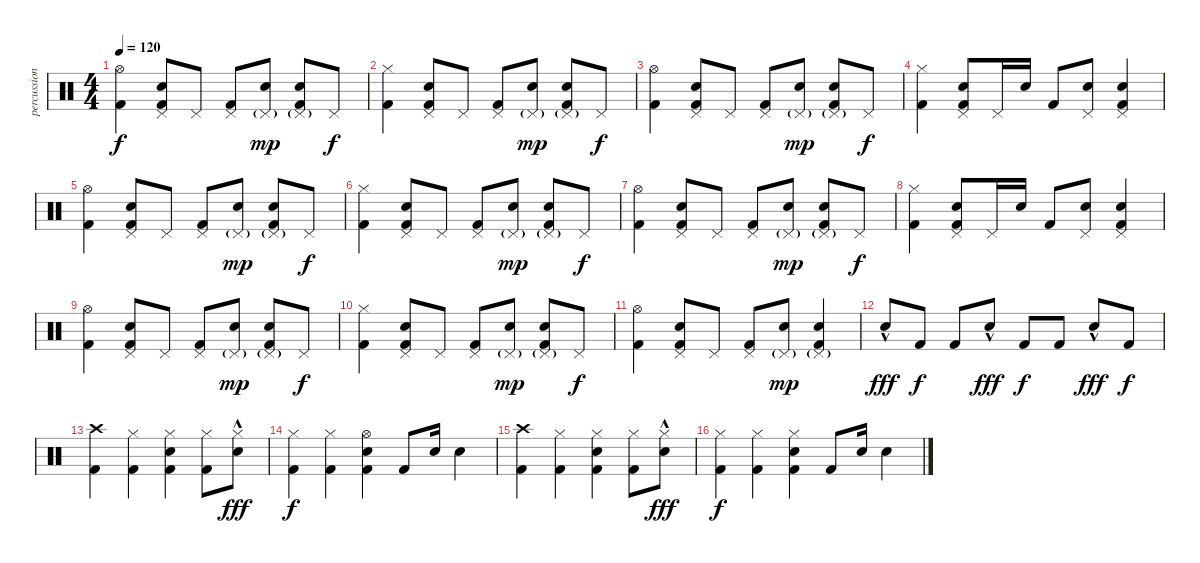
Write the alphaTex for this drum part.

\track ("percussion" "percussion") {instrument percussion}
\staff {score}
\articulation defaults
\ts (4 4)
\tempo 120
\clef neutral
\ks c
("Hi-Hat (open)" "Kick (hit) 2").4{dy f} ("Pedal Hi-Hat (hit)" "Electric Snare (hit)" "Kick (hit) 2").8 "Pedal Hi-Hat (hit)".8 ("Pedal Hi-Hat (hit)" "Kick (hit) 2").8 ("Pedal Hi-Hat (hit)"{g} "Electric Snare (hit)").8{dy mp} ("Pedal Hi-Hat (hit)"{g} "Electric Snare (hit)" "Kick (hit) 2").8 "Pedal Hi-Hat (hit)".8{dy f} |
("Hi-Hat (closed)" "Kick (hit) 2").4 ("Pedal Hi-Hat (hit)" "Electric Snare (hit)" "Kick (hit) 2").8 "Pedal Hi-Hat (hit)".8 ("Pedal Hi-Hat (hit)" "Kick (hit) 2").8 ("Pedal Hi-Hat (hit)"{g} "Electric Snare (hit)").8{dy mp} ("Pedal Hi-Hat (hit)"{g} "Electric Snare (hit)" "Kick (hit) 2").8 "Pedal Hi-Hat (hit)".8{dy f} |
("Hi-Hat (open)" "Kick (hit) 2").4 ("Pedal Hi-Hat (hit)" "Electric Snare (hit)" "Kick (hit) 2").8 "Pedal Hi-Hat (hit)".8 ("Pedal Hi-Hat (hit)" "Kick (hit) 2").8 ("Pedal Hi-Hat (hit)"{g} "Electric Snare (hit)").8{dy mp} ("Pedal Hi-Hat (hit)"{g} "Electric Snare (hit)" "Kick (hit) 2").8 "Pedal Hi-Hat (hit)".8{dy f} |
("Hi-Hat (closed)" "Kick (hit) 2").4 ("Pedal Hi-Hat (hit)" "Electric Snare (hit)" "Kick (hit) 2").8 "Pedal Hi-Hat (hit)".16 "Electric Snare (hit)".16 "Kick (hit) 2".8 ("Pedal Hi-Hat (hit)" "Electric Snare (hit)").8 ("Pedal Hi-Hat (hit)" "Electric Snare (hit)" "Kick (hit) 2").4 |
("Hi-Hat (open)" "Kick (hit) 2").4 ("Pedal Hi-Hat (hit)" "Electric Snare (hit)" "Kick (hit) 2").8 "Pedal Hi-Hat (hit)".8 ("Pedal Hi-Hat (hit)" "Kick (hit) 2").8 ("Pedal Hi-Hat (hit)"{g} "Electric Snare (hit)").8{dy mp} ("Pedal Hi-Hat (hit)"{g} "Electric Snare (hit)" "Kick (hit) 2").8 "Pedal Hi-Hat (hit)".8{dy f} |
("Hi-Hat (closed)" "Kick (hit) 2").4 ("Pedal Hi-Hat (hit)" "Electric Snare (hit)" "Kick (hit) 2").8 "Pedal Hi-Hat (hit)".8 ("Pedal Hi-Hat (hit)" "Kick (hit) 2").8 ("Pedal Hi-Hat (hit)"{g} "Electric Snare (hit)").8{dy mp} ("Pedal Hi-Hat (hit)"{g} "Electric Snare (hit)" "Kick (hit) 2").8 "Pedal Hi-Hat (hit)".8{dy f} |
("Hi-Hat (open)" "Kick (hit) 2").4 ("Pedal Hi-Hat (hit)" "Electric Snare (hit)" "Kick (hit) 2").8 "Pedal Hi-Hat (hit)".8 ("Pedal Hi-Hat (hit)" "Kick (hit) 2").8 ("Pedal Hi-Hat (hit)"{g} "Electric Snare (hit)").8{dy mp} ("Pedal Hi-Hat (hit)"{g} "Electric Snare (hit)" "Kick (hit) 2").8 "Pedal Hi-Hat (hit)".8{dy f} |
("Hi-Hat (closed)" "Kick (hit) 2").4 ("Pedal Hi-Hat (hit)" "Electric Snare (hit)" "Kick (hit) 2").8 "Pedal Hi-Hat (hit)".16 "Electric Snare (hit)".16 "Kick (hit) 2".8 ("Pedal Hi-Hat (hit)" "Electric Snare (hit)").8 ("Pedal Hi-Hat (hit)" "Electric Snare (hit)" "Kick (hit) 2").4 |
("Hi-Hat (open)" "Kick (hit) 2").4 ("Pedal Hi-Hat (hit)" "Electric Snare (hit)" "Kick (hit) 2").8 "Pedal Hi-Hat (hit)".8 ("Pedal Hi-Hat (hit)" "Kick (hit) 2").8 ("Pedal Hi-Hat (hit)"{g} "Electric Snare (hit)").8{dy mp} ("Pedal Hi-Hat (hit)"{g} "Electric Snare (hit)" "Kick (hit) 2").8 "Pedal Hi-Hat (hit)".8{dy f} |
("Hi-Hat (closed)" "Kick (hit) 2").4 ("Pedal Hi-Hat (hit)" "Electric Snare (hit)" "Kick (hit) 2").8 "Pedal Hi-Hat (hit)".8 ("Pedal Hi-Hat (hit)" "Kick (hit) 2").8 ("Pedal Hi-Hat (hit)"{g} "Electric Snare (hit)").8{dy mp} ("Pedal Hi-Hat (hit)"{g} "Electric Snare (hit)" "Kick (hit) 2").8 "Pedal Hi-Hat (hit)".8{dy f} |
("Hi-Hat (open)" "Kick (hit) 2").4 ("Pedal Hi-Hat (hit)" "Electric Snare (hit)" "Kick (hit) 2").8 "Pedal Hi-Hat (hit)".8 ("Pedal Hi-Hat (hit)" "Kick (hit) 2").8 ("Pedal Hi-Hat (hit)"{g} "Electric Snare (hit)").8{dy mp} ("Pedal Hi-Hat (hit)"{g} "Electric Snare (hit)" "Kick (hit) 2").4 |
"Electric Snare (hit)"{hac}.8{dy fff} "Kick (hit) 2".8{dy f} "Kick (hit) 2".8 "Electric Snare (hit)"{hac}.8{dy fff} "Kick (hit) 2".8{dy f} "Kick (hit) 2".8 "Electric Snare (hit)"{hac}.8{dy fff} "Kick (hit) 2".8{dy f} |
("Crash high (hit)" "Kick (hit) 2").4 ("Hi-Hat (closed)" "Kick (hit) 2").4 ("Hi-Hat (closed)" "Electric Snare (hit)" "Kick (hit) 2").4 ("Hi-Hat (closed)" "Kick (hit) 2").8 ("Hi-Hat (closed)" "Electric Snare (hit)"{hac}).8{dy fff} |
("Hi-Hat (closed)" "Kick (hit) 2").4{dy f} ("Hi-Hat (closed)" "Kick (hit) 2").4 ("Hi-Hat (open)" "Electric Snare (hit)" "Kick (hit) 2").4 "Kick (hit) 2".8 "Electric Snare (hit)".16 "Electric Snare (hit)".4 |
("Crash high (hit)" "Kick (hit) 2").4 ("Hi-Hat (closed)" "Kick (hit) 2").4 ("Hi-Hat (closed)" "Electric Snare (hit)" "Kick (hit) 2").4 ("Hi-Hat (closed)" "Kick (hit) 2").8 ("Hi-Hat (closed)" "Electric Snare (hit)"{hac}).8{dy fff} |
("Hi-Hat (closed)" "Kick (hit) 2").4{dy f} ("Hi-Hat (closed)" "Kick (hit) 2").4 ("Hi-Hat (closed)" "Electric Snare (hit)" "Kick (hit) 2").4 "Kick (hit) 2".8 "Electric Snare (hit)".16 "Electric Snare (hit)".4
